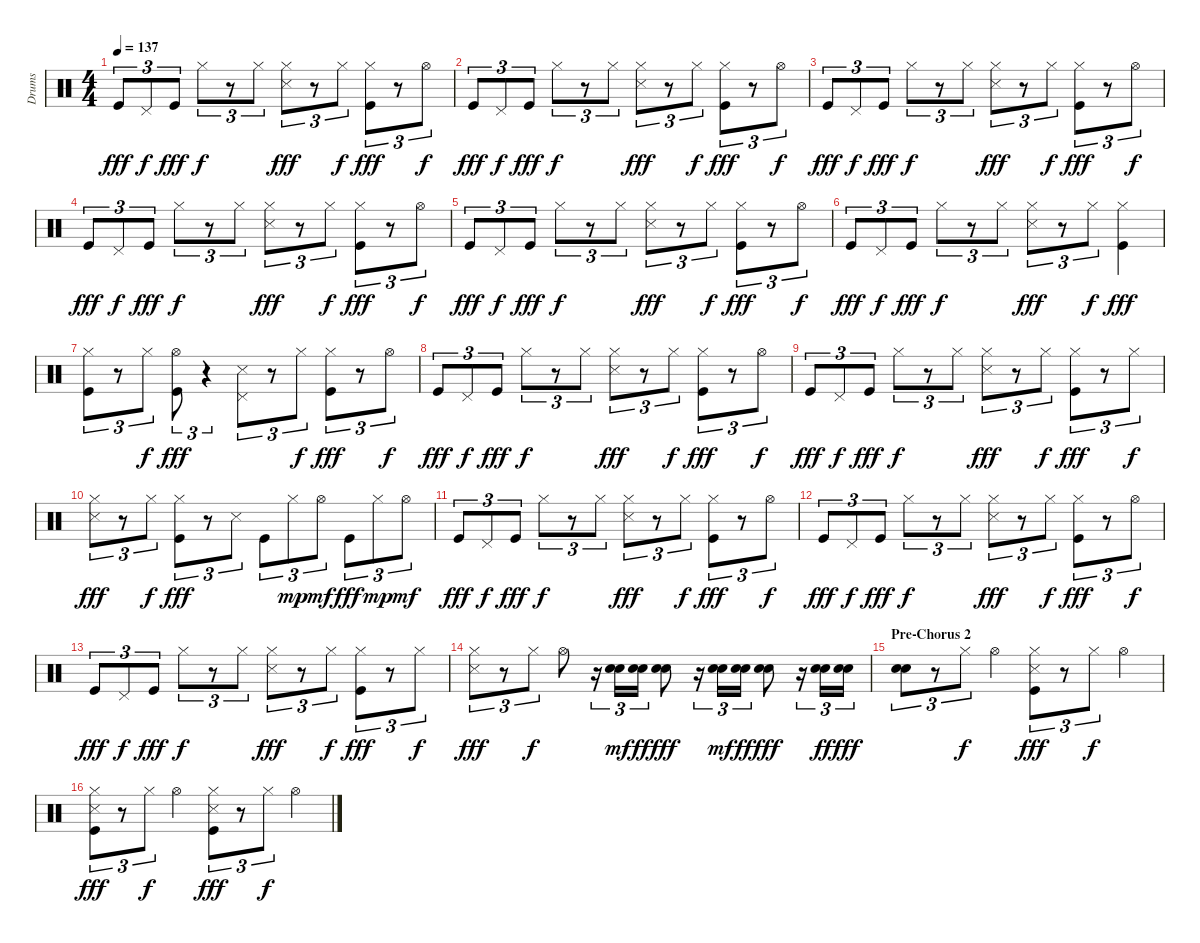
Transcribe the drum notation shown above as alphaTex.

\track ("Drums" "Drums") {instrument percussion}
\staff {score}
\articulation defaults
\ts (4 4)
\tempo 137
\clef neutral
\ks c "Kick (hit)".8{tu (3 2) dy fff} "Pedal Hi-Hat (hit)".8{tu (3 2) dy f} "Kick (hit)".8{tu (3 2) dy fff} "Hi-Hat (closed)".8{tu (3 2) dy f}
r.8{tu (3 2)} "Hi-Hat (closed)".8{tu (3 2)} ("Hi-Hat (closed)" "Snare (side stick) 3").8{tu (3 2) dy fff} r.8{tu (3 2)} "Hi-Hat (closed)".8{tu (3 2) dy f} ("Hi-Hat (closed)" "Kick (hit)").8{tu (3 2) dy fff} r.8{tu (3 2)} "Hi-Hat (open)".8{tu (3 2) dy f} |
"Kick (hit)".8{tu (3 2) dy fff} "Pedal Hi-Hat (hit)".8{tu (3 2) dy f} "Kick (hit)".8{tu (3 2) dy fff} "Hi-Hat (closed)".8{tu (3 2) dy f} r.8{tu (3 2)} "Hi-Hat (closed)".8{tu (3 2)} ("Hi-Hat (closed)" "Snare (side stick) 3").8{tu (3 2) dy fff} r.8{tu (3 2)} "Hi-Hat (closed)".8{tu (3 2) dy f} ("Hi-Hat (closed)" "Kick (hit)").8{tu (3 2) dy fff} r.8{tu (3 2)} "Hi-Hat (open)".8{tu (3 2) dy f} |
"Kick (hit)".8{tu (3 2) dy fff} "Pedal Hi-Hat (hit)".8{tu (3 2) dy f} "Kick (hit)".8{tu (3 2) dy fff} "Hi-Hat (closed)".8{tu (3 2) dy f} r.8{tu (3 2)} "Hi-Hat (closed)".8{tu (3 2)} ("Hi-Hat (closed)" "Snare (side stick) 3").8{tu (3 2) dy fff} r.8{tu (3 2)} "Hi-Hat (closed)".8{tu (3 2) dy f} ("Hi-Hat (closed)" "Kick (hit)").8{tu (3 2) dy fff} r.8{tu (3 2)} "Hi-Hat (open)".8{tu (3 2) dy f} |
"Kick (hit)".8{tu (3 2) dy fff} "Pedal Hi-Hat (hit)".8{tu (3 2) dy f} "Kick (hit)".8{tu (3 2) dy fff} "Hi-Hat (closed)".8{tu (3 2) dy f} r.8{tu (3 2)} "Hi-Hat (closed)".8{tu (3 2)} ("Hi-Hat (closed)" "Snare (side stick) 3").8{tu (3 2) dy fff} r.8{tu (3 2)} "Hi-Hat (closed)".8{tu (3 2) dy f} ("Hi-Hat (closed)" "Kick (hit)").8{tu (3 2) dy fff} r.8{tu (3 2)} "Hi-Hat (open)".8{tu (3 2) dy f} |
"Kick (hit)".8{tu (3 2) dy fff} "Pedal Hi-Hat (hit)".8{tu (3 2) dy f} "Kick (hit)".8{tu (3 2) dy fff} "Hi-Hat (closed)".8{tu (3 2) dy f} r.8{tu (3 2)} "Hi-Hat (closed)".8{tu (3 2)} ("Hi-Hat (closed)" "Snare (side stick) 3").8{tu (3 2) dy fff} r.8{tu (3 2)} "Hi-Hat (closed)".8{tu (3 2) dy f} ("Hi-Hat (closed)" "Kick (hit)").8{tu (3 2) dy fff} r.8{tu (3 2)} "Hi-Hat (open)".8{tu (3 2) dy f} |
"Kick (hit)".8{tu (3 2) dy fff} "Pedal Hi-Hat (hit)".8{tu (3 2) dy f} "Kick (hit)".8{tu (3 2) dy fff} "Hi-Hat (closed)".8{tu (3 2) dy f} r.8{tu (3 2)} "Hi-Hat (closed)".8{tu (3 2)} ("Hi-Hat (closed)" "Snare (side stick) 3").8{tu (3 2) dy fff} r.8{tu (3 2)} "Hi-Hat (closed)".8{tu (3 2) dy f} ("Hi-Hat (closed)" "Kick (hit)").4{dy fff} |
("Hi-Hat (closed)" "Kick (hit)").8{tu (3 2)} r.8{tu (3 2)} "Hi-Hat (closed)".8{tu (3 2) dy f} ("Hi-Hat (open)" "Kick (hit)").8{tu (3 2) dy fff} r.4{tu (3 2)} ("Pedal Hi-Hat (hit)" "Snare (side stick) 3").8{tu (3 2)} r.8{tu (3 2)} "Hi-Hat (closed)".8{tu (3 2) dy f} ("Hi-Hat (closed)" "Kick (hit)").8{tu (3 2) dy fff} r.8{tu (3 2)} "Hi-Hat (open)".8{tu (3 2) dy f} |
"Kick (hit)".8{tu (3 2) dy fff} "Pedal Hi-Hat (hit)".8{tu (3 2) dy f} "Kick (hit)".8{tu (3 2) dy fff} "Hi-Hat (closed)".8{tu (3 2) dy f} r.8{tu (3 2)} "Hi-Hat (closed)".8{tu (3 2)} ("Hi-Hat (closed)" "Snare (side stick) 3").8{tu (3 2) dy fff} r.8{tu (3 2)} "Hi-Hat (closed)".8{tu (3 2) dy f} ("Hi-Hat (closed)" "Kick (hit)").8{tu (3 2) dy fff} r.8{tu (3 2)} "Hi-Hat (open)".8{tu (3 2) dy f} |
"Kick (hit)".8{tu (3 2) dy fff} "Pedal Hi-Hat (hit)".8{tu (3 2) dy f} "Kick (hit)".8{tu (3 2) dy fff} "Hi-Hat (closed)".8{tu (3 2) dy f} r.8{tu (3 2)} "Hi-Hat (closed)".8{tu (3 2)} ("Hi-Hat (closed)" "Snare (side stick) 3").8{tu (3 2) dy fff} r.8{tu (3 2)} "Hi-Hat (closed)".8{tu (3 2) dy f} ("Hi-Hat (closed)" "Kick (hit)").8{tu (3 2) dy fff} r.8{tu (3 2)} "Hi-Hat (closed)".8{tu (3 2) dy f} |
("Hi-Hat (closed)" "Snare (side stick) 3").8{tu (3 2) dy fff} r.8{tu (3 2)} "Hi-Hat (closed)".8{tu (3 2) dy f} ("Hi-Hat (closed)" "Kick (hit)").8{tu (3 2) dy fff} r.8{tu (3 2)} "Snare (side stick) 3".8{tu (3 2)} "Kick (hit)".8{tu (3 2)} "Hi-Hat (closed)".8{tu (3 2) dy mp} "Hi-Hat (open)".8{tu (3 2) dy mf} "Kick (hit)".8{tu (3 2) dy fff} "Hi-Hat (closed)".8{tu (3 2) dy mp} "Hi-Hat (open)".8{tu (3 2) dy mf} |
"Kick (hit)".8{tu (3 2) dy fff} "Pedal Hi-Hat (hit)".8{tu (3 2) dy f} "Kick (hit)".8{tu (3 2) dy fff} "Hi-Hat (closed)".8{tu (3 2) dy f} r.8{tu (3 2)} "Hi-Hat (closed)".8{tu (3 2)} ("Hi-Hat (closed)" "Snare (side stick) 3").8{tu (3 2) dy fff} r.8{tu (3 2)} "Hi-Hat (closed)".8{tu (3 2) dy f} ("Hi-Hat (closed)" "Kick (hit)").8{tu (3 2) dy fff} r.8{tu (3 2)} "Hi-Hat (open)".8{tu (3 2) dy f} |
"Kick (hit)".8{tu (3 2) dy fff} "Pedal Hi-Hat (hit)".8{tu (3 2) dy f} "Kick (hit)".8{tu (3 2) dy fff} "Hi-Hat (closed)".8{tu (3 2) dy f} r.8{tu (3 2)} "Hi-Hat (closed)".8{tu (3 2)} ("Hi-Hat (closed)" "Snare (side stick) 3").8{tu (3 2) dy fff} r.8{tu (3 2)} "Hi-Hat (closed)".8{tu (3 2) dy f} ("Hi-Hat (closed)" "Kick (hit)").8{tu (3 2) dy fff} r.8{tu (3 2)} "Hi-Hat (open)".8{tu (3 2) dy f} |
"Kick (hit)".8{tu (3 2) dy fff} "Pedal Hi-Hat (hit)".8{tu (3 2) dy f} "Kick (hit)".8{tu (3 2) dy fff} "Hi-Hat (closed)".8{tu (3 2) dy f} r.8{tu (3 2)} "Hi-Hat (closed)".8{tu (3 2)} ("Hi-Hat (closed)" "Snare (side stick) 3").8{tu (3 2) dy fff} r.8{tu (3 2)} "Hi-Hat (closed)".8{tu (3 2) dy f} ("Hi-Hat (closed)" "Kick (hit)").8{tu (3 2) dy fff} r.8{tu (3 2)} "Hi-Hat (closed)".8{tu (3 2) dy f} |
("Hi-Hat (closed)" "Snare (side stick) 3").8{tu (3 2) dy fff} r.8{tu (3 2)} "Hi-Hat (closed)".8{tu (3 2) dy f} "Hi-Hat (open)".8 r.16{tu (3 2)} ("Snare (hit) 2" "Electric Snare (hit)").16{tu (3 2) dy mf volume 16} ("Snare (hit) 2" "Electric Snare (hit)").16{tu (3 2) dy ff} ("Snare (hit) 2" "Electric Snare (hit)").8{dy fff} r.16{tu (3 2)} ("Snare (hit) 2" "Electric Snare (hit)").16{tu (3 2) dy mf} ("Snare (hit) 2" "Electric Snare (hit)").16{tu (3 2) dy ff} ("Snare (hit) 2" "Electric Snare (hit)").8{dy fff} r.16{tu (3 2)} ("Snare (hit) 2" "Electric Snare (hit)").16{tu (3 2) dy ff} ("Snare (hit) 2" "Electric Snare (hit)").16{tu (3 2) dy fff} |
\section ("" "Pre-Chorus 2")
("Snare (hit) 2" "Electric Snare (hit)").8{tu (3 2)} r.8{tu (3 2)} "Hi-Hat (closed)".8{tu (3 2) dy f volume 10} "Hi-Hat (open)".4 ("Hi-Hat (closed)" "Snare (side stick) 3" "Kick (hit)").8{tu (3 2) dy fff} r.8{tu (3 2)} "Hi-Hat (closed)".8{tu (3 2) dy f} "Hi-Hat (open)".4 |
("Hi-Hat (closed)" "Snare (side stick) 3" "Kick (hit)").8{tu (3 2) dy fff} r.8{tu (3 2)} "Hi-Hat (closed)".8{tu (3 2) dy f} "Hi-Hat (open)".4 ("Hi-Hat (closed)" "Snare (side stick) 3" "Kick (hit)").8{tu (3 2) dy fff} r.8{tu (3 2)} "Hi-Hat (closed)".8{tu (3 2) dy f} "Hi-Hat (open)".4
